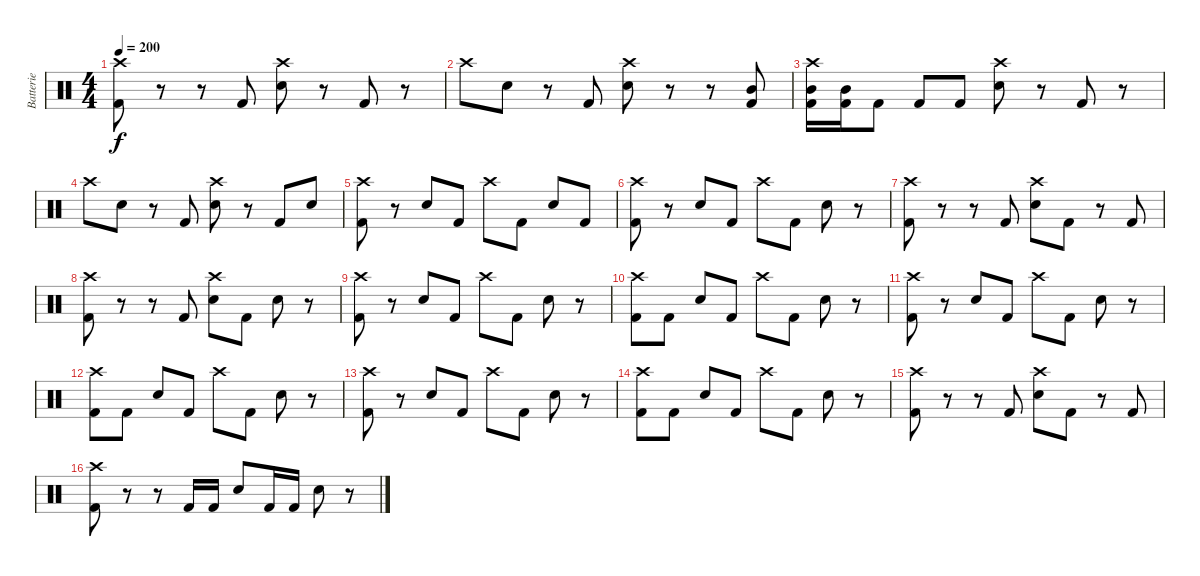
\track ("Batterie" "Batterie") {instrument percussion}
\staff {score}
\articulation defaults
\ts (4 4)
\tempo 200
\clef neutral
\ks c
("Crash high (hit)" "Kick (hit) 2").8{dy f} r.8 r.8 "Kick (hit) 2".8 ("Crash high (hit)" "Electric Snare (hit)").8 r.8 "Kick (hit) 2".8 r.8 |
"Crash high (hit)".8 "Electric Snare (hit)".8 r.8 "Kick (hit) 2".8 ("Crash high (hit)" "Electric Snare (hit)").8 r.8 r.8 ("Mid Tom (hit)" "Kick (hit) 2").8 |
("Crash high (hit)" "Mid Tom (hit)" "Kick (hit) 2").16 ("Mid Tom (hit)" "Kick (hit) 2").16 "Kick (hit) 2".8 "Kick (hit) 2".8 "Kick (hit) 2".8 ("Crash high (hit)" "Electric Snare (hit)").8 r.8 "Kick (hit) 2".8 r.8 |
"Crash high (hit)".8 "Electric Snare (hit)".8 r.8 "Kick (hit) 2".8 ("Crash high (hit)" "Electric Snare (hit)").8 r.8 "Kick (hit) 2".8 "Electric Snare (hit)".8 |
("Crash high (hit)" "Kick (hit) 2").8 r.8 "Electric Snare (hit)".8 "Kick (hit) 2".8 "Crash high (hit)".8 "Kick (hit) 2".8 "Electric Snare (hit)".8 "Kick (hit) 2".8 |
("Crash high (hit)" "Kick (hit) 2").8 r.8 "Electric Snare (hit)".8 "Kick (hit) 2".8 "Crash high (hit)".8 "Kick (hit) 2".8 "Electric Snare (hit)".8 r.8 |
("Crash high (hit)" "Kick (hit) 2").8 r.8 r.8 "Kick (hit) 2".8 ("Crash high (hit)" "Electric Snare (hit)").8 "Kick (hit) 2".8 r.8 "Kick (hit) 2".8 |
("Crash high (hit)" "Kick (hit) 2").8 r.8 r.8 "Kick (hit) 2".8 ("Crash high (hit)" "Electric Snare (hit)").8 "Kick (hit) 2".8 "Electric Snare (hit)".8 r.8 |
("Crash high (hit)" "Kick (hit) 2").8 r.8 "Electric Snare (hit)".8 "Kick (hit) 2".8 "Crash high (hit)".8 "Kick (hit) 2".8 "Electric Snare (hit)".8 r.8 |
("Crash high (hit)" "Kick (hit) 2").8 "Kick (hit) 2".8 "Electric Snare (hit)".8 "Kick (hit) 2".8 "Crash high (hit)".8 "Kick (hit) 2".8 "Electric Snare (hit)".8 r.8 |
("Crash high (hit)" "Kick (hit) 2").8 r.8 "Electric Snare (hit)".8 "Kick (hit) 2".8 "Crash high (hit)".8 "Kick (hit) 2".8 "Electric Snare (hit)".8 r.8 |
("Crash high (hit)" "Kick (hit) 2").8 "Kick (hit) 2".8 "Electric Snare (hit)".8 "Kick (hit) 2".8 "Crash high (hit)".8 "Kick (hit) 2".8 "Electric Snare (hit)".8 r.8 |
("Crash high (hit)" "Kick (hit) 2").8 r.8 "Electric Snare (hit)".8 "Kick (hit) 2".8 "Crash high (hit)".8 "Kick (hit) 2".8 "Electric Snare (hit)".8 r.8 |
("Crash high (hit)" "Kick (hit) 2").8 "Kick (hit) 2".8 "Electric Snare (hit)".8 "Kick (hit) 2".8 "Crash high (hit)".8 "Kick (hit) 2".8 "Electric Snare (hit)".8 r.8 |
("Crash high (hit)" "Kick (hit) 2").8 r.8 r.8 "Kick (hit) 2".8 ("Crash high (hit)" "Electric Snare (hit)").8 "Kick (hit) 2".8 r.8 "Kick (hit) 2".8 |
("Crash high (hit)" "Kick (hit) 2").8 r.8 r.8 "Kick (hit) 2".16 "Kick (hit) 2".16 "Electric Snare (hit)".8 "Kick (hit) 2".16 "Kick (hit) 2".16 "Electric Snare (hit)".8 r.8
